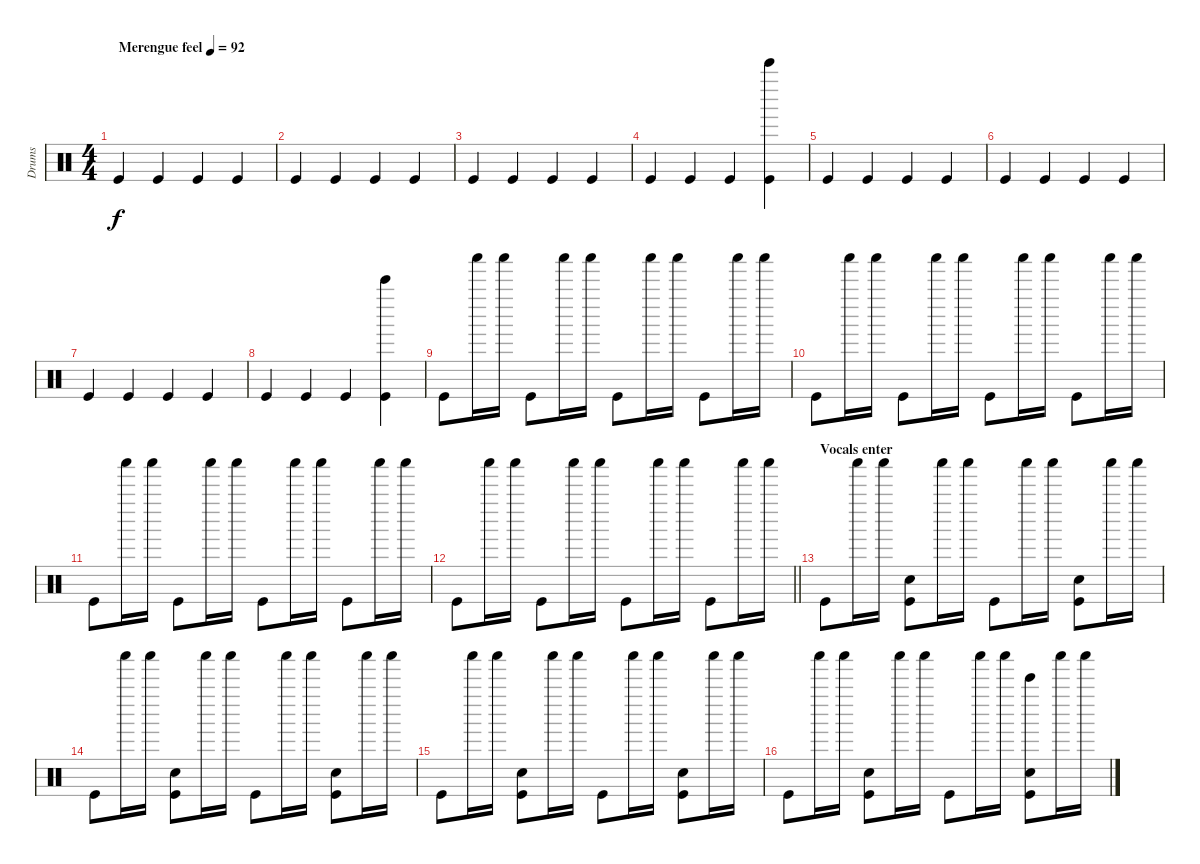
\track ("Drums" "Drums") {instrument percussion}
\staff {score}
\articulation defaults
\ts (4 4)
\tempo (92 "Merengue feel")
\clef neutral
\ks c "Kick (hit)".4{dy f} "Kick (hit)".4 "Kick (hit)".4 "Kick (hit)".4
|
"Kick (hit)".4 "Kick (hit)".4 "Kick (hit)".4 "Kick (hit)".4 |
"Kick (hit)".4 "Kick (hit)".4 "Kick (hit)".4 "Kick (hit)".4 |
"Kick (hit)".4 "Kick (hit)".4 "Kick (hit)".4 ("Bell Tree (hit)" "Kick (hit)").4{bd 480} |
"Kick (hit)".4 "Kick (hit)".4 "Kick (hit)".4 "Kick (hit)".4 |
"Kick (hit)".4 "Kick (hit)".4 "Kick (hit)".4 "Kick (hit)".4 |
"Kick (hit)".4 "Kick (hit)".4 "Kick (hit)".4 "Kick (hit)".4 |
"Kick (hit)".4 "Kick (hit)".4 "Kick (hit)".4 ("Bell Tree (hit)" "Kick (hit)").4 |
"Kick (hit)".8 "Shaker (hit)".16 "Shaker (hit)".16 "Kick (hit)".8 "Shaker (hit)".16 "Shaker (hit)".16 "Kick (hit)".8 "Shaker (hit)".16 "Shaker (hit)".16 "Kick (hit)".8 "Shaker (hit)".16 "Shaker (hit)".16 |
"Kick (hit)".8 "Shaker (hit)".16 "Shaker (hit)".16 "Kick (hit)".8 "Shaker (hit)".16 "Shaker (hit)".16 "Kick (hit)".8 "Shaker (hit)".16 "Shaker (hit)".16 "Kick (hit)".8 "Shaker (hit)".16 "Shaker (hit)".16 |
"Kick (hit)".8 "Shaker (hit)".16 "Shaker (hit)".16 "Kick (hit)".8 "Shaker (hit)".16 "Shaker (hit)".16 "Kick (hit)".8 "Shaker (hit)".16 "Shaker (hit)".16 "Kick (hit)".8 "Shaker (hit)".16 "Shaker (hit)".16 |
\barLineRight lightlight "Kick (hit)".8 "Shaker (hit)".16 "Shaker (hit)".16 "Kick (hit)".8 "Shaker (hit)".16 "Shaker (hit)".16 "Kick (hit)".8 "Shaker (hit)".16 "Shaker (hit)".16 "Kick (hit)".8 "Shaker (hit)".16 "Shaker (hit)".16
|
\section ("" "Vocals enter")
"Kick (hit)".8 "Shaker (hit)".16 "Shaker (hit)".16 ("Snare (hit) 2" "Kick (hit)").8 "Shaker (hit)".16 "Shaker (hit)".16 "Kick (hit)".8 "Shaker (hit)".16 "Shaker (hit)".16 ("Snare (hit) 2" "Kick (hit)").8 "Shaker (hit)".16 "Shaker (hit)".16 |
"Kick (hit)".8 "Shaker (hit)".16 "Shaker (hit)".16 ("Snare (hit) 2" "Kick (hit)").8 "Shaker (hit)".16 "Shaker (hit)".16 "Kick (hit)".8 "Shaker (hit)".16 "Shaker (hit)".16 ("Snare (hit) 2" "Kick (hit)").8 "Shaker (hit)".16 "Shaker (hit)".16 |
"Kick (hit)".8 "Shaker (hit)".16 "Shaker (hit)".16 ("Snare (hit) 2" "Kick (hit)").8 "Shaker (hit)".16 "Shaker (hit)".16 "Kick (hit)".8 "Shaker (hit)".16 "Shaker (hit)".16 ("Snare (hit) 2" "Kick (hit)").8 "Shaker (hit)".16 "Shaker (hit)".16 |
"Kick (hit)".8 "Shaker (hit)".16 "Shaker (hit)".16 ("Snare (hit) 2" "Kick (hit)").8 "Shaker (hit)".16 "Shaker (hit)".16 "Kick (hit)".8 "Shaker (hit)".16 "Shaker (hit)".16 ("Snare (hit) 2" "Bell Tree (hit)" "Kick (hit)").8 "Shaker (hit)".16 "Shaker (hit)".16
